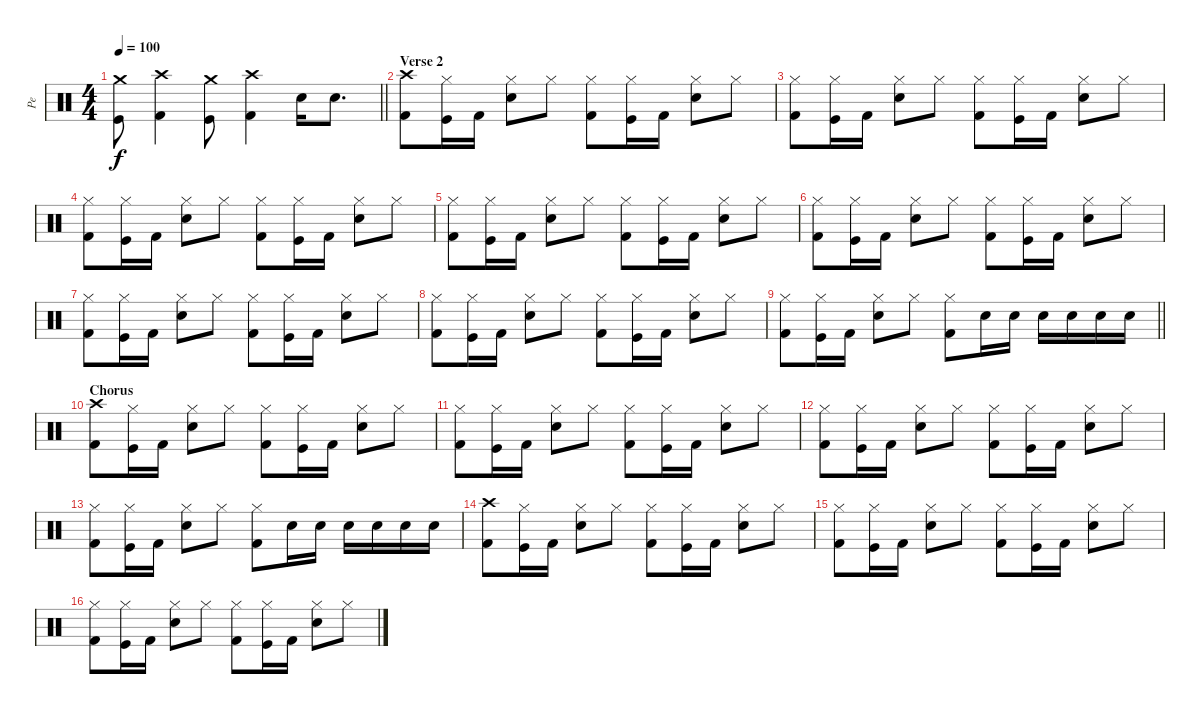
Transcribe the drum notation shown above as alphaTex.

\track ("Pe" "Pe") {instrument percussion}
\staff {score}
\articulation defaults
\ts (4 4)
\tempo 100
\clef neutral
\barLineRight lightlight
\ks c
("Kick (hit)" "Crash medium (hit)").8{dy f} ("Kick (hit) 2" "Crash high (hit)").4 ("Kick (hit)" "Crash medium (hit)").8 ("Kick (hit) 2" "Crash high (hit)").4 "Electric Snare (hit)".16 "Electric Snare (hit)".8{d} |
\section ("" "Verse 2")
("Kick (hit) 2" "Crash high (hit)").8 ("Kick (hit)" "Hi-Hat (closed)").16 "Kick (hit) 2".16 ("Electric Snare (hit)" "Hi-Hat (closed)").8 "Hi-Hat (closed)".8 ("Kick (hit) 2" "Hi-Hat (closed)").8 ("Kick (hit)" "Hi-Hat (closed)").16 "Kick (hit) 2".16 ("Electric Snare (hit)" "Hi-Hat (closed)").8 "Hi-Hat (closed)".8 |
("Kick (hit) 2" "Hi-Hat (closed)").8 ("Kick (hit)" "Hi-Hat (closed)").16 "Kick (hit) 2".16 ("Electric Snare (hit)" "Hi-Hat (closed)").8 "Hi-Hat (closed)".8 ("Kick (hit) 2" "Hi-Hat (closed)").8 ("Kick (hit)" "Hi-Hat (closed)").16 "Kick (hit) 2".16 ("Electric Snare (hit)" "Hi-Hat (closed)").8 "Hi-Hat (closed)".8 |
("Kick (hit) 2" "Hi-Hat (closed)").8 ("Kick (hit)" "Hi-Hat (closed)").16 "Kick (hit) 2".16 ("Electric Snare (hit)" "Hi-Hat (closed)").8 "Hi-Hat (closed)".8 ("Kick (hit) 2" "Hi-Hat (closed)").8 ("Kick (hit)" "Hi-Hat (closed)").16 "Kick (hit) 2".16 ("Electric Snare (hit)" "Hi-Hat (closed)").8 "Hi-Hat (closed)".8 |
("Kick (hit) 2" "Hi-Hat (closed)").8 ("Kick (hit)" "Hi-Hat (closed)").16 "Kick (hit) 2".16 ("Electric Snare (hit)" "Hi-Hat (closed)").8 "Hi-Hat (closed)".8 ("Kick (hit) 2" "Hi-Hat (closed)").8 ("Kick (hit)" "Hi-Hat (closed)").16 "Kick (hit) 2".16 ("Electric Snare (hit)" "Hi-Hat (closed)").8 "Hi-Hat (closed)".8 |
("Kick (hit) 2" "Hi-Hat (closed)").8 ("Kick (hit)" "Hi-Hat (closed)").16 "Kick (hit) 2".16 ("Electric Snare (hit)" "Hi-Hat (closed)").8 "Hi-Hat (closed)".8 ("Kick (hit) 2" "Hi-Hat (closed)").8 ("Kick (hit)" "Hi-Hat (closed)").16 "Kick (hit) 2".16 ("Electric Snare (hit)" "Hi-Hat (closed)").8 "Hi-Hat (closed)".8 |
("Kick (hit) 2" "Hi-Hat (closed)").8 ("Kick (hit)" "Hi-Hat (closed)").16 "Kick (hit) 2".16 ("Electric Snare (hit)" "Hi-Hat (closed)").8 "Hi-Hat (closed)".8 ("Kick (hit) 2" "Hi-Hat (closed)").8 ("Kick (hit)" "Hi-Hat (closed)").16 "Kick (hit) 2".16 ("Electric Snare (hit)" "Hi-Hat (closed)").8 "Hi-Hat (closed)".8 |
("Kick (hit) 2" "Hi-Hat (closed)").8 ("Kick (hit)" "Hi-Hat (closed)").16 "Kick (hit) 2".16 ("Electric Snare (hit)" "Hi-Hat (closed)").8 "Hi-Hat (closed)".8 ("Kick (hit) 2" "Hi-Hat (closed)").8 ("Kick (hit)" "Hi-Hat (closed)").16 "Kick (hit) 2".16 ("Electric Snare (hit)" "Hi-Hat (closed)").8 "Hi-Hat (closed)".8 |
\barLineRight lightlight
("Kick (hit) 2" "Hi-Hat (closed)").8 ("Kick (hit)" "Hi-Hat (closed)").16 "Kick (hit) 2".16 ("Electric Snare (hit)" "Hi-Hat (closed)").8 "Hi-Hat (closed)".8 ("Kick (hit) 2" "Hi-Hat (closed)").8 "Electric Snare (hit)".16 "Electric Snare (hit)".16 "Electric Snare (hit)".16 "Electric Snare (hit)".16 "Electric Snare (hit)".16 "Electric Snare (hit)".16 |
\section ("" "Chorus")
("Kick (hit) 2" "Crash high (hit)").8 ("Kick (hit)" "Hi-Hat (closed)").16 "Kick (hit) 2".16 ("Electric Snare (hit)" "Hi-Hat (closed)").8 "Hi-Hat (closed)".8 ("Kick (hit) 2" "Hi-Hat (closed)").8 ("Kick (hit)" "Hi-Hat (closed)").16 "Kick (hit) 2".16 ("Electric Snare (hit)" "Hi-Hat (closed)").8 "Hi-Hat (closed)".8 |
("Kick (hit) 2" "Hi-Hat (closed)").8 ("Kick (hit)" "Hi-Hat (closed)").16 "Kick (hit) 2".16 ("Electric Snare (hit)" "Hi-Hat (closed)").8 "Hi-Hat (closed)".8 ("Kick (hit) 2" "Hi-Hat (closed)").8 ("Kick (hit)" "Hi-Hat (closed)").16 "Kick (hit) 2".16 ("Electric Snare (hit)" "Hi-Hat (closed)").8 "Hi-Hat (closed)".8 |
("Kick (hit) 2" "Hi-Hat (closed)").8 ("Kick (hit)" "Hi-Hat (closed)").16 "Kick (hit) 2".16 ("Electric Snare (hit)" "Hi-Hat (closed)").8 "Hi-Hat (closed)".8 ("Kick (hit) 2" "Hi-Hat (closed)").8 ("Kick (hit)" "Hi-Hat (closed)").16 "Kick (hit) 2".16 ("Electric Snare (hit)" "Hi-Hat (closed)").8 "Hi-Hat (closed)".8 |
("Kick (hit) 2" "Hi-Hat (closed)").8 ("Kick (hit)" "Hi-Hat (closed)").16 "Kick (hit) 2".16 ("Electric Snare (hit)" "Hi-Hat (closed)").8 "Hi-Hat (closed)".8 ("Kick (hit) 2" "Hi-Hat (closed)").8 "Electric Snare (hit)".16 "Electric Snare (hit)".16 "Electric Snare (hit)".16 "Electric Snare (hit)".16 "Electric Snare (hit)".16 "Electric Snare (hit)".16 |
("Kick (hit) 2" "Crash high (hit)").8 ("Kick (hit)" "Hi-Hat (closed)").16 "Kick (hit) 2".16 ("Electric Snare (hit)" "Hi-Hat (closed)").8 "Hi-Hat (closed)".8 ("Kick (hit) 2" "Hi-Hat (closed)").8 ("Kick (hit)" "Hi-Hat (closed)").16 "Kick (hit) 2".16 ("Electric Snare (hit)" "Hi-Hat (closed)").8 "Hi-Hat (closed)".8 |
("Kick (hit) 2" "Hi-Hat (closed)").8 ("Kick (hit)" "Hi-Hat (closed)").16 "Kick (hit) 2".16 ("Electric Snare (hit)" "Hi-Hat (closed)").8 "Hi-Hat (closed)".8 ("Kick (hit) 2" "Hi-Hat (closed)").8 ("Kick (hit)" "Hi-Hat (closed)").16 "Kick (hit) 2".16 ("Electric Snare (hit)" "Hi-Hat (closed)").8 "Hi-Hat (closed)".8 |
("Kick (hit) 2" "Hi-Hat (closed)").8 ("Kick (hit)" "Hi-Hat (closed)").16 "Kick (hit) 2".16 ("Electric Snare (hit)" "Hi-Hat (closed)").8 "Hi-Hat (closed)".8 ("Kick (hit) 2" "Hi-Hat (closed)").8 ("Kick (hit)" "Hi-Hat (closed)").16 "Kick (hit) 2".16 ("Electric Snare (hit)" "Hi-Hat (closed)").8 "Hi-Hat (closed)".8
